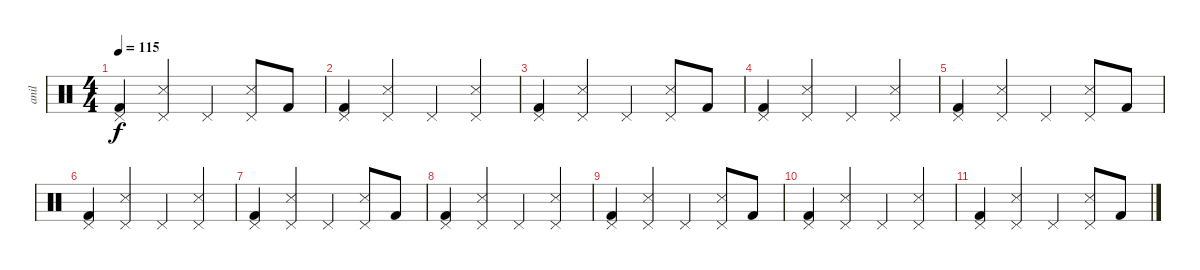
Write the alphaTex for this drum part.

\track ("anil " "anil ") {instrument percussion}
\staff {score}
\articulation defaults
\ts (4 4)
\tempo 115
\clef neutral
\ks c
("Pedal Hi-Hat (hit)" "Kick (hit) 2").4{dy f} ("Pedal Hi-Hat (hit)" "Snare (side stick) 3").4 "Pedal Hi-Hat (hit)".4 ("Pedal Hi-Hat (hit)" "Snare (side stick) 3").8 "Kick (hit) 2".8 |
("Pedal Hi-Hat (hit)" "Kick (hit) 2").4 ("Pedal Hi-Hat (hit)" "Snare (side stick) 3").4 "Pedal Hi-Hat (hit)".4 ("Pedal Hi-Hat (hit)" "Snare (side stick) 3").4 |
("Pedal Hi-Hat (hit)" "Kick (hit) 2").4 ("Pedal Hi-Hat (hit)" "Snare (side stick) 3").4 "Pedal Hi-Hat (hit)".4 ("Pedal Hi-Hat (hit)" "Snare (side stick) 3").8 "Kick (hit) 2".8 |
("Pedal Hi-Hat (hit)" "Kick (hit) 2").4 ("Pedal Hi-Hat (hit)" "Snare (side stick) 3").4 "Pedal Hi-Hat (hit)".4 ("Pedal Hi-Hat (hit)" "Snare (side stick) 3").4 |
("Pedal Hi-Hat (hit)" "Kick (hit) 2").4 ("Pedal Hi-Hat (hit)" "Snare (side stick) 3").4 "Pedal Hi-Hat (hit)".4 ("Pedal Hi-Hat (hit)" "Snare (side stick) 3").8 "Kick (hit) 2".8 |
("Pedal Hi-Hat (hit)" "Kick (hit) 2").4 ("Pedal Hi-Hat (hit)" "Snare (side stick) 3").4 "Pedal Hi-Hat (hit)".4 ("Pedal Hi-Hat (hit)" "Snare (side stick) 3").4 |
("Pedal Hi-Hat (hit)" "Kick (hit) 2").4 ("Pedal Hi-Hat (hit)" "Snare (side stick) 3").4 "Pedal Hi-Hat (hit)".4 ("Pedal Hi-Hat (hit)" "Snare (side stick) 3").8 "Kick (hit) 2".8 |
("Pedal Hi-Hat (hit)" "Kick (hit) 2").4 ("Pedal Hi-Hat (hit)" "Snare (side stick) 3").4 "Pedal Hi-Hat (hit)".4 ("Pedal Hi-Hat (hit)" "Snare (side stick) 3").4 |
("Pedal Hi-Hat (hit)" "Kick (hit) 2").4 ("Pedal Hi-Hat (hit)" "Snare (side stick) 3").4 "Pedal Hi-Hat (hit)".4 ("Pedal Hi-Hat (hit)" "Snare (side stick) 3").8 "Kick (hit) 2".8 |
("Pedal Hi-Hat (hit)" "Kick (hit) 2").4 ("Pedal Hi-Hat (hit)" "Snare (side stick) 3").4 "Pedal Hi-Hat (hit)".4 ("Pedal Hi-Hat (hit)" "Snare (side stick) 3").4 |
("Pedal Hi-Hat (hit)" "Kick (hit) 2").4 ("Pedal Hi-Hat (hit)" "Snare (side stick) 3").4 "Pedal Hi-Hat (hit)".4 ("Pedal Hi-Hat (hit)" "Snare (side stick) 3").8 "Kick (hit) 2".8
